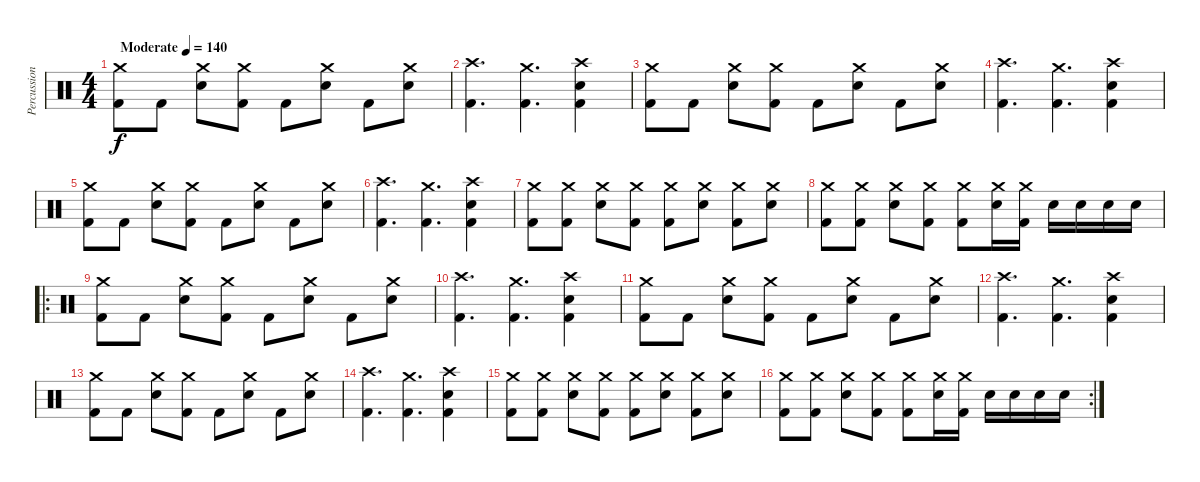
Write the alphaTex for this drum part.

\track ("Percussion" "Percussion") {instrument percussion}
\staff {score}
\articulation defaults
\ts (4 4)
\tempo (140 "Moderate")
\clef neutral
\ks c
("Kick (hit) 2" "Crash medium (hit)").8{dy f} "Kick (hit) 2".8 ("Snare (hit) 2" "Crash medium (hit)").8 ("Kick (hit) 2" "Crash medium (hit)").8 "Kick (hit) 2".8 ("Snare (hit) 2" "Crash medium (hit)").8 "Kick (hit) 2".8 ("Snare (hit) 2" "Crash medium (hit)").8 |
("Kick (hit) 2" "Crash high (hit)").4{d} ("Kick (hit) 2" "Crash medium (hit)").4{d} ("Kick (hit) 2" "Snare (hit) 2" "Crash high (hit)").4 |
("Kick (hit) 2" "Crash medium (hit)").8 "Kick (hit) 2".8 ("Snare (hit) 2" "Crash medium (hit)").8 ("Kick (hit) 2" "Crash medium (hit)").8 "Kick (hit) 2".8 ("Snare (hit) 2" "Crash medium (hit)").8 "Kick (hit) 2".8 ("Snare (hit) 2" "Crash medium (hit)").8 |
("Kick (hit) 2" "Crash high (hit)").4{d} ("Kick (hit) 2" "Crash medium (hit)").4{d} ("Kick (hit) 2" "Snare (hit) 2" "Crash high (hit)").4 |
("Kick (hit) 2" "Crash medium (hit)").8 "Kick (hit) 2".8 ("Snare (hit) 2" "Crash medium (hit)").8 ("Kick (hit) 2" "Crash medium (hit)").8 "Kick (hit) 2".8 ("Snare (hit) 2" "Crash medium (hit)").8 "Kick (hit) 2".8 ("Snare (hit) 2" "Crash medium (hit)").8 |
("Kick (hit) 2" "Crash high (hit)").4{d} ("Kick (hit) 2" "Crash medium (hit)").4{d} ("Kick (hit) 2" "Snare (hit) 2" "Crash high (hit)").4 |
("Kick (hit) 2" "Crash medium (hit)").8 ("Kick (hit) 2" "Crash medium (hit)").8 ("Snare (hit) 2" "Crash medium (hit)").8 ("Kick (hit) 2" "Crash medium (hit)").8 ("Kick (hit) 2" "Crash medium (hit)").8 ("Snare (hit) 2" "Crash medium (hit)").8 ("Kick (hit) 2" "Crash medium (hit)").8 ("Snare (hit) 2" "Crash medium (hit)").8 |
("Kick (hit) 2" "Crash medium (hit)").8 ("Kick (hit) 2" "Crash medium (hit)").8 ("Snare (hit) 2" "Crash medium (hit)").8 ("Kick (hit) 2" "Crash medium (hit)").8 ("Kick (hit) 2" "Crash medium (hit)").8 ("Snare (hit) 2" "Crash medium (hit)").16 ("Kick (hit) 2" "Crash medium (hit)").16 "Snare (hit) 2".16 "Snare (hit) 2".16 "Snare (hit) 2".16 "Snare (hit) 2".16 |
\ro
("Kick (hit) 2" "Crash medium (hit)").8 "Kick (hit) 2".8 ("Snare (hit) 2" "Crash medium (hit)").8 ("Kick (hit) 2" "Crash medium (hit)").8 "Kick (hit) 2".8 ("Snare (hit) 2" "Crash medium (hit)").8 "Kick (hit) 2".8 ("Snare (hit) 2" "Crash medium (hit)").8 |
("Kick (hit) 2" "Crash high (hit)").4{d} ("Kick (hit) 2" "Crash medium (hit)").4{d} ("Kick (hit) 2" "Snare (hit) 2" "Crash high (hit)").4 |
("Kick (hit) 2" "Crash medium (hit)").8 "Kick (hit) 2".8 ("Snare (hit) 2" "Crash medium (hit)").8 ("Kick (hit) 2" "Crash medium (hit)").8 "Kick (hit) 2".8 ("Snare (hit) 2" "Crash medium (hit)").8 "Kick (hit) 2".8 ("Snare (hit) 2" "Crash medium (hit)").8 |
("Kick (hit) 2" "Crash high (hit)").4{d} ("Kick (hit) 2" "Crash medium (hit)").4{d} ("Kick (hit) 2" "Snare (hit) 2" "Crash high (hit)").4 |
("Kick (hit) 2" "Crash medium (hit)").8 "Kick (hit) 2".8 ("Snare (hit) 2" "Crash medium (hit)").8 ("Kick (hit) 2" "Crash medium (hit)").8 "Kick (hit) 2".8 ("Snare (hit) 2" "Crash medium (hit)").8 "Kick (hit) 2".8 ("Snare (hit) 2" "Crash medium (hit)").8 |
("Kick (hit) 2" "Crash high (hit)").4{d} ("Kick (hit) 2" "Crash medium (hit)").4{d} ("Kick (hit) 2" "Snare (hit) 2" "Crash high (hit)").4 |
("Kick (hit) 2" "Crash medium (hit)").8 ("Kick (hit) 2" "Crash medium (hit)").8 ("Snare (hit) 2" "Crash medium (hit)").8 ("Kick (hit) 2" "Crash medium (hit)").8 ("Kick (hit) 2" "Crash medium (hit)").8 ("Snare (hit) 2" "Crash medium (hit)").8 ("Kick (hit) 2" "Crash medium (hit)").8 ("Snare (hit) 2" "Crash medium (hit)").8 |
\rc 2
("Kick (hit) 2" "Crash medium (hit)").8 ("Kick (hit) 2" "Crash medium (hit)").8 ("Snare (hit) 2" "Crash medium (hit)").8 ("Kick (hit) 2" "Crash medium (hit)").8 ("Kick (hit) 2" "Crash medium (hit)").8 ("Snare (hit) 2" "Crash medium (hit)").16 ("Kick (hit) 2" "Crash medium (hit)").16 "Snare (hit) 2".16 "Snare (hit) 2".16 "Snare (hit) 2".16 "Snare (hit) 2".16
